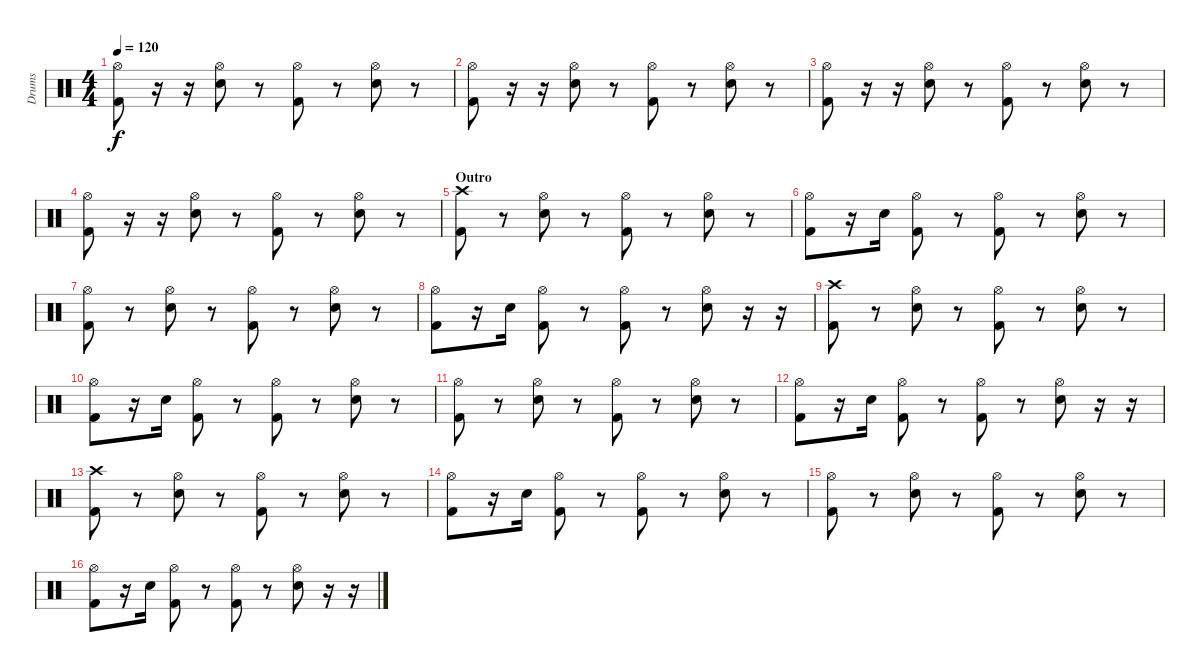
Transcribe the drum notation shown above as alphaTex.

\track ("Drums" "Drums") {instrument percussion}
\staff {score}
\articulation defaults
\ts (4 4)
\tempo 120
\clef neutral
\ks c
("Hi-Hat (open)" "Kick (hit) 2").8{dy f} r.16 r.16 ("Hi-Hat (open)" "Electric Snare (hit)").8 r.8 ("Hi-Hat (open)" "Kick (hit) 2").8 r.8 ("Hi-Hat (open)" "Electric Snare (hit)").8 r.8 |
("Hi-Hat (open)" "Kick (hit) 2").8 r.16 r.16 ("Hi-Hat (open)" "Electric Snare (hit)").8 r.8 ("Hi-Hat (open)" "Kick (hit) 2").8 r.8 ("Hi-Hat (open)" "Electric Snare (hit)").8 r.8 |
("Hi-Hat (open)" "Kick (hit) 2").8 r.16 r.16 ("Hi-Hat (open)" "Electric Snare (hit)").8 r.8 ("Hi-Hat (open)" "Kick (hit) 2").8 r.8 ("Hi-Hat (open)" "Electric Snare (hit)").8 r.8 |
("Hi-Hat (open)" "Kick (hit) 2").8 r.16 r.16 ("Hi-Hat (open)" "Electric Snare (hit)").8 r.8 ("Hi-Hat (open)" "Kick (hit) 2").8 r.8 ("Hi-Hat (open)" "Electric Snare (hit)").8 r.8 |
\section ("" "Outro")
("Crash high (hit)" "Kick (hit) 2").8 r.8 ("Hi-Hat (open)" "Electric Snare (hit)").8 r.8 ("Hi-Hat (open)" "Kick (hit) 2").8 r.8 ("Hi-Hat (open)" "Electric Snare (hit)").8 r.8 |
("Hi-Hat (open)" "Kick (hit) 2").8 r.16 "Electric Snare (hit)".16 ("Hi-Hat (open)" "Kick (hit) 2").8 r.8 ("Hi-Hat (open)" "Kick (hit) 2").8 r.8 ("Hi-Hat (open)" "Electric Snare (hit)").8 r.8 |
("Hi-Hat (open)" "Kick (hit) 2").8 r.8 ("Hi-Hat (open)" "Electric Snare (hit)").8 r.8 ("Hi-Hat (open)" "Kick (hit) 2").8 r.8 ("Hi-Hat (open)" "Electric Snare (hit)").8 r.8 |
("Hi-Hat (open)" "Kick (hit) 2").8 r.16 "Electric Snare (hit)".16 ("Hi-Hat (open)" "Kick (hit) 2").8 r.8 ("Hi-Hat (open)" "Kick (hit) 2").8 r.8 ("Hi-Hat (open)" "Electric Snare (hit)").8 r.16 r.16 |
("Crash high (hit)" "Kick (hit) 2").8 r.8 ("Hi-Hat (open)" "Electric Snare (hit)").8 r.8 ("Hi-Hat (open)" "Kick (hit) 2").8 r.8 ("Hi-Hat (open)" "Electric Snare (hit)").8 r.8 |
("Hi-Hat (open)" "Kick (hit) 2").8 r.16 "Electric Snare (hit)".16 ("Hi-Hat (open)" "Kick (hit) 2").8 r.8 ("Hi-Hat (open)" "Kick (hit) 2").8 r.8 ("Hi-Hat (open)" "Electric Snare (hit)").8 r.8 |
("Hi-Hat (open)" "Kick (hit) 2").8 r.8 ("Hi-Hat (open)" "Electric Snare (hit)").8 r.8 ("Hi-Hat (open)" "Kick (hit) 2").8 r.8 ("Hi-Hat (open)" "Electric Snare (hit)").8 r.8 |
("Hi-Hat (open)" "Kick (hit) 2").8 r.16 "Electric Snare (hit)".16 ("Hi-Hat (open)" "Kick (hit) 2").8 r.8 ("Hi-Hat (open)" "Kick (hit) 2").8 r.8 ("Hi-Hat (open)" "Electric Snare (hit)").8 r.16 r.16 |
("Crash high (hit)" "Kick (hit) 2").8 r.8 ("Hi-Hat (open)" "Electric Snare (hit)").8 r.8 ("Hi-Hat (open)" "Kick (hit) 2").8 r.8 ("Hi-Hat (open)" "Electric Snare (hit)").8 r.8 |
("Hi-Hat (open)" "Kick (hit) 2").8 r.16 "Electric Snare (hit)".16 ("Hi-Hat (open)" "Kick (hit) 2").8 r.8 ("Hi-Hat (open)" "Kick (hit) 2").8 r.8 ("Hi-Hat (open)" "Electric Snare (hit)").8 r.8 |
("Hi-Hat (open)" "Kick (hit) 2").8 r.8 ("Hi-Hat (open)" "Electric Snare (hit)").8 r.8 ("Hi-Hat (open)" "Kick (hit) 2").8 r.8 ("Hi-Hat (open)" "Electric Snare (hit)").8 r.8 |
("Hi-Hat (open)" "Kick (hit) 2").8 r.16 "Electric Snare (hit)".16 ("Hi-Hat (open)" "Kick (hit) 2").8 r.8 ("Hi-Hat (open)" "Kick (hit) 2").8 r.8 ("Hi-Hat (open)" "Electric Snare (hit)").8 r.16 r.16
